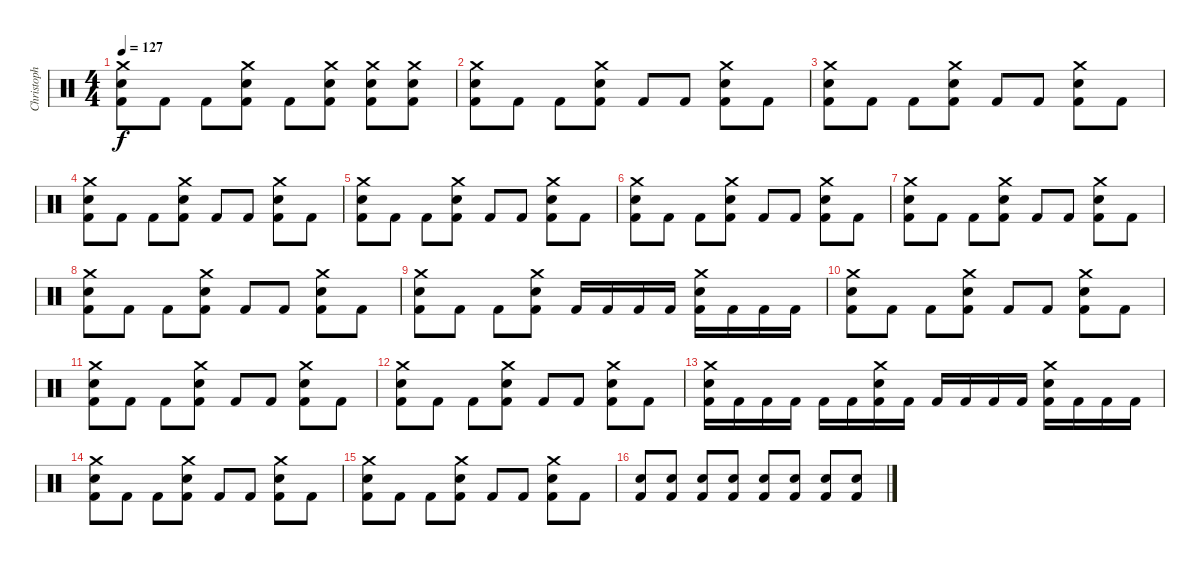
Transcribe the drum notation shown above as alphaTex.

\track ("Christoph Schneider - Drums" "Christoph ") {instrument percussion}
\staff {score}
\articulation defaults
\ts (4 4)
\tempo 127
\clef neutral
\ks c
("Crash medium (hit)" "Electric Snare (hit)" "Kick (hit) 2").8{dy f} "Kick (hit) 2".8 "Kick (hit) 2".8 ("Crash medium (hit)" "Electric Snare (hit)" "Kick (hit) 2").8 "Kick (hit) 2".8 ("Crash medium (hit)" "Electric Snare (hit)" "Kick (hit) 2").8 ("Crash medium (hit)" "Electric Snare (hit)" "Kick (hit) 2").8 ("Crash medium (hit)" "Electric Snare (hit)" "Kick (hit) 2").8 |
("Crash medium (hit)" "Electric Snare (hit)" "Kick (hit) 2").8 "Kick (hit) 2".8 "Kick (hit) 2".8 ("Crash medium (hit)" "Electric Snare (hit)" "Kick (hit) 2").8 "Kick (hit) 2".8 "Kick (hit) 2".8 ("Crash medium (hit)" "Electric Snare (hit)" "Kick (hit) 2").8 "Kick (hit) 2".8 |
("Crash medium (hit)" "Electric Snare (hit)" "Kick (hit) 2").8 "Kick (hit) 2".8 "Kick (hit) 2".8 ("Crash medium (hit)" "Electric Snare (hit)" "Kick (hit) 2").8 "Kick (hit) 2".8 "Kick (hit) 2".8 ("Crash medium (hit)" "Electric Snare (hit)" "Kick (hit) 2").8 "Kick (hit) 2".8 |
("Crash medium (hit)" "Electric Snare (hit)" "Kick (hit) 2").8 "Kick (hit) 2".8 "Kick (hit) 2".8 ("Crash medium (hit)" "Electric Snare (hit)" "Kick (hit) 2").8 "Kick (hit) 2".8 "Kick (hit) 2".8 ("Crash medium (hit)" "Electric Snare (hit)" "Kick (hit) 2").8 "Kick (hit) 2".8 |
("Crash medium (hit)" "Electric Snare (hit)" "Kick (hit) 2").8 "Kick (hit) 2".8 "Kick (hit) 2".8 ("Crash medium (hit)" "Electric Snare (hit)" "Kick (hit) 2").8 "Kick (hit) 2".8 "Kick (hit) 2".8 ("Crash medium (hit)" "Electric Snare (hit)" "Kick (hit) 2").8 "Kick (hit) 2".8 |
("Crash medium (hit)" "Electric Snare (hit)" "Kick (hit) 2").8 "Kick (hit) 2".8 "Kick (hit) 2".8 ("Crash medium (hit)" "Electric Snare (hit)" "Kick (hit) 2").8 "Kick (hit) 2".8 "Kick (hit) 2".8 ("Crash medium (hit)" "Electric Snare (hit)" "Kick (hit) 2").8 "Kick (hit) 2".8 |
("Crash medium (hit)" "Electric Snare (hit)" "Kick (hit) 2").8 "Kick (hit) 2".8 "Kick (hit) 2".8 ("Crash medium (hit)" "Electric Snare (hit)" "Kick (hit) 2").8 "Kick (hit) 2".8 "Kick (hit) 2".8 ("Crash medium (hit)" "Electric Snare (hit)" "Kick (hit) 2").8 "Kick (hit) 2".8 |
("Crash medium (hit)" "Electric Snare (hit)" "Kick (hit) 2").8 "Kick (hit) 2".8 "Kick (hit) 2".8 ("Crash medium (hit)" "Electric Snare (hit)" "Kick (hit) 2").8 "Kick (hit) 2".8 "Kick (hit) 2".8 ("Crash medium (hit)" "Electric Snare (hit)" "Kick (hit) 2").8 "Kick (hit) 2".8 |
("Crash medium (hit)" "Electric Snare (hit)" "Kick (hit) 2").8 "Kick (hit) 2".8 "Kick (hit) 2".8 ("Crash medium (hit)" "Electric Snare (hit)" "Kick (hit) 2").8 "Kick (hit) 2".16 "Kick (hit) 2".16 "Kick (hit) 2".16 "Kick (hit) 2".16 ("Crash medium (hit)" "Electric Snare (hit)" "Kick (hit) 2").16 "Kick (hit) 2".16 "Kick (hit) 2".16 "Kick (hit) 2".16 |
("Crash medium (hit)" "Electric Snare (hit)" "Kick (hit) 2").8 "Kick (hit) 2".8 "Kick (hit) 2".8 ("Crash medium (hit)" "Electric Snare (hit)" "Kick (hit) 2").8 "Kick (hit) 2".8 "Kick (hit) 2".8 ("Crash medium (hit)" "Electric Snare (hit)" "Kick (hit) 2").8 "Kick (hit) 2".8 |
("Crash medium (hit)" "Electric Snare (hit)" "Kick (hit) 2").8 "Kick (hit) 2".8 "Kick (hit) 2".8 ("Crash medium (hit)" "Electric Snare (hit)" "Kick (hit) 2").8 "Kick (hit) 2".8 "Kick (hit) 2".8 ("Crash medium (hit)" "Electric Snare (hit)" "Kick (hit) 2").8 "Kick (hit) 2".8 |
("Crash medium (hit)" "Electric Snare (hit)" "Kick (hit) 2").8 "Kick (hit) 2".8 "Kick (hit) 2".8 ("Crash medium (hit)" "Electric Snare (hit)" "Kick (hit) 2").8 "Kick (hit) 2".8 "Kick (hit) 2".8 ("Crash medium (hit)" "Electric Snare (hit)" "Kick (hit) 2").8 "Kick (hit) 2".8 |
("Crash medium (hit)" "Electric Snare (hit)" "Kick (hit) 2").16 "Kick (hit) 2".16 "Kick (hit) 2".16 "Kick (hit) 2".16 "Kick (hit) 2".16 "Kick (hit) 2".16 ("Crash medium (hit)" "Electric Snare (hit)" "Kick (hit) 2").16 "Kick (hit) 2".16 "Kick (hit) 2".16 "Kick (hit) 2".16 "Kick (hit) 2".16 "Kick (hit) 2".16 ("Crash medium (hit)" "Electric Snare (hit)" "Kick (hit) 2").16 "Kick (hit) 2".16 "Kick (hit) 2".16 "Kick (hit) 2".16 |
("Crash medium (hit)" "Electric Snare (hit)" "Kick (hit) 2").8 "Kick (hit) 2".8 "Kick (hit) 2".8 ("Crash medium (hit)" "Electric Snare (hit)" "Kick (hit) 2").8 "Kick (hit) 2".8 "Kick (hit) 2".8 ("Crash medium (hit)" "Electric Snare (hit)" "Kick (hit) 2").8 "Kick (hit) 2".8 |
("Crash medium (hit)" "Electric Snare (hit)" "Kick (hit) 2").8 "Kick (hit) 2".8 "Kick (hit) 2".8 ("Crash medium (hit)" "Electric Snare (hit)" "Kick (hit) 2").8 "Kick (hit) 2".8 "Kick (hit) 2".8 ("Crash medium (hit)" "Electric Snare (hit)" "Kick (hit) 2").8 "Kick (hit) 2".8 |
("Electric Snare (hit)" "Kick (hit) 2").8 ("Electric Snare (hit)" "Kick (hit) 2").8 ("Electric Snare (hit)" "Kick (hit) 2").8 ("Electric Snare (hit)" "Kick (hit) 2").8 ("Electric Snare (hit)" "Kick (hit) 2").8 ("Electric Snare (hit)" "Kick (hit) 2").8 ("Electric Snare (hit)" "Kick (hit) 2").8 ("Electric Snare (hit)" "Kick (hit) 2").8
